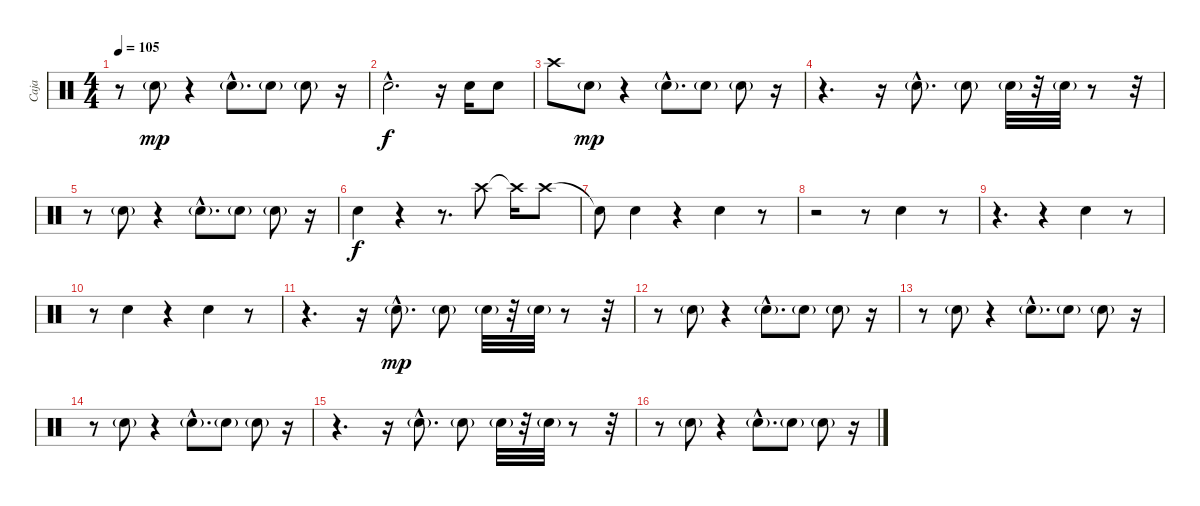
\track ("Caja" "Caja") {instrument percussion}
\staff {score}
\articulation defaults
\ts (4 4)
\tempo 105
\clef neutral
\ks c
r.8{dy mp} "Electric Snare (hit)"{g}.8 r.4 "Electric Snare (hit)"{g hac}.8{d} "Electric Snare (hit)"{g}.8 "Electric Snare (hit)"{g}.8 r.16 |
"Electric Snare (hit)"{hac}.2{d dy f} r.16 "Snare (hit) 2".16 "Snare (hit) 2".8 |
"Crash high (hit)".8 "Electric Snare (hit)"{g}.8{dy mp} r.4 "Electric Snare (hit)"{g hac}.8{d} "Electric Snare (hit)"{g}.8 "Electric Snare (hit)"{g}.8 r.16 |
r.4{d} r.16 "Electric Snare (hit)"{g hac}.8{d} "Electric Snare (hit)"{g}.8 "Electric Snare (hit)"{g}.32 r.32 "Electric Snare (hit)"{g}.32 r.8 r.32 |
r.8 "Electric Snare (hit)"{g}.8 r.4 "Electric Snare (hit)"{g hac}.8{d} "Electric Snare (hit)"{g}.8 "Electric Snare (hit)"{g}.8 r.16 |
"Electric Snare (hit)".4{dy f} r.4 r.8{d} "Crash high (hit)".8 "Crash high (hit)"{t}.16 "Crash high (hit)".8 |
"Snare (hit)"{t}.8 "Snare (hit) 2".4 r.4 "Snare (hit) 2".4 r.8 |
r.2 r.8 "Snare (hit) 2".4 r.8 |
r.4{d} r.4 "Snare (hit) 2".4 r.8 |
r.8 "Snare (hit) 2".4 r.4 "Snare (hit) 2".4 r.8 |
r.4{d} r.16 "Electric Snare (hit)"{g hac}.8{d dy mp} "Electric Snare (hit)"{g}.8 "Electric Snare (hit)"{g}.32 r.32 "Electric Snare (hit)"{g}.32 r.8 r.32 |
r.8 "Electric Snare (hit)"{g}.8 r.4 "Electric Snare (hit)"{g hac}.8{d} "Electric Snare (hit)"{g}.8 "Electric Snare (hit)"{g}.8 r.16 |
r.8 "Electric Snare (hit)"{g}.8 r.4 "Electric Snare (hit)"{g hac}.8{d} "Electric Snare (hit)"{g}.8 "Electric Snare (hit)"{g}.8 r.16 |
r.8 "Electric Snare (hit)"{g}.8 r.4 "Electric Snare (hit)"{g hac}.8{d} "Electric Snare (hit)"{g}.8 "Electric Snare (hit)"{g}.8 r.16 |
r.4{d} r.16 "Electric Snare (hit)"{g hac}.8{d} "Electric Snare (hit)"{g}.8 "Electric Snare (hit)"{g}.32 r.32 "Electric Snare (hit)"{g}.32 r.8 r.32 |
r.8 "Electric Snare (hit)"{g}.8 r.4 "Electric Snare (hit)"{g hac}.8{d} "Electric Snare (hit)"{g}.8 "Electric Snare (hit)"{g}.8 r.16
